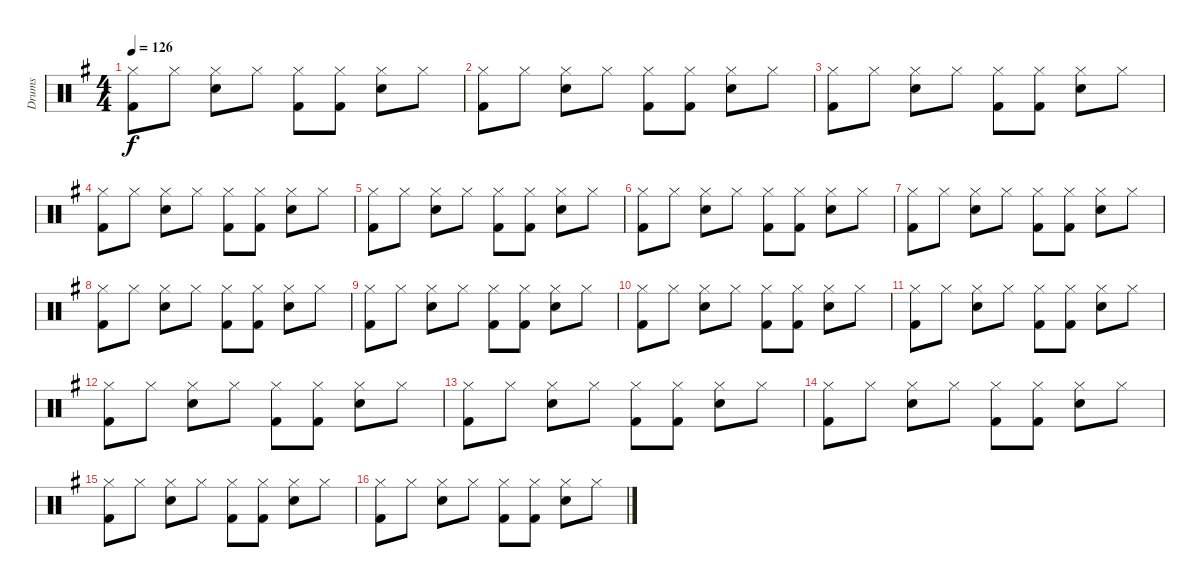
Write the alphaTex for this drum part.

\track ("Drums" "Drums") {instrument percussion}
\staff {score}
\articulation defaults
\ts (4 4)
\tempo 126
\clef neutral
\ks g
("Hi-Hat (closed)" "Kick (hit) 2").8{dy f} "Hi-Hat (closed)".8 ("Hi-Hat (closed)" "Snare (hit) 2").8 "Hi-Hat (closed)".8 ("Hi-Hat (closed)" "Kick (hit) 2").8 ("Hi-Hat (closed)" "Kick (hit) 2").8 ("Hi-Hat (closed)" "Snare (hit) 2").8 "Hi-Hat (closed)".8 |
("Hi-Hat (closed)" "Kick (hit) 2").8 "Hi-Hat (closed)".8 ("Hi-Hat (closed)" "Snare (hit) 2").8 "Hi-Hat (closed)".8 ("Hi-Hat (closed)" "Kick (hit) 2").8 ("Hi-Hat (closed)" "Kick (hit) 2").8 ("Hi-Hat (closed)" "Snare (hit) 2").8 "Hi-Hat (closed)".8 |
("Hi-Hat (closed)" "Kick (hit) 2").8 "Hi-Hat (closed)".8 ("Hi-Hat (closed)" "Snare (hit) 2").8 "Hi-Hat (closed)".8 ("Hi-Hat (closed)" "Kick (hit) 2").8 ("Hi-Hat (closed)" "Kick (hit) 2").8 ("Hi-Hat (closed)" "Snare (hit) 2").8 "Hi-Hat (closed)".8 |
("Hi-Hat (closed)" "Kick (hit) 2").8 "Hi-Hat (closed)".8 ("Hi-Hat (closed)" "Snare (hit) 2").8 "Hi-Hat (closed)".8 ("Hi-Hat (closed)" "Kick (hit) 2").8 ("Hi-Hat (closed)" "Kick (hit) 2").8 ("Hi-Hat (closed)" "Snare (hit) 2").8 "Hi-Hat (closed)".8 |
("Hi-Hat (closed)" "Kick (hit) 2").8 "Hi-Hat (closed)".8 ("Hi-Hat (closed)" "Snare (hit) 2").8 "Hi-Hat (closed)".8 ("Hi-Hat (closed)" "Kick (hit) 2").8 ("Hi-Hat (closed)" "Kick (hit) 2").8 ("Hi-Hat (closed)" "Snare (hit) 2").8 "Hi-Hat (closed)".8 |
("Hi-Hat (closed)" "Kick (hit) 2").8 "Hi-Hat (closed)".8 ("Hi-Hat (closed)" "Snare (hit) 2").8 "Hi-Hat (closed)".8 ("Hi-Hat (closed)" "Kick (hit) 2").8 ("Hi-Hat (closed)" "Kick (hit) 2").8 ("Hi-Hat (closed)" "Snare (hit) 2").8 "Hi-Hat (closed)".8 |
("Hi-Hat (closed)" "Kick (hit) 2").8 "Hi-Hat (closed)".8 ("Hi-Hat (closed)" "Snare (hit) 2").8 "Hi-Hat (closed)".8 ("Hi-Hat (closed)" "Kick (hit) 2").8 ("Hi-Hat (closed)" "Kick (hit) 2").8 ("Hi-Hat (closed)" "Snare (hit) 2").8 "Hi-Hat (closed)".8 |
("Hi-Hat (closed)" "Kick (hit) 2").8 "Hi-Hat (closed)".8 ("Hi-Hat (closed)" "Snare (hit) 2").8 "Hi-Hat (closed)".8 ("Hi-Hat (closed)" "Kick (hit) 2").8 ("Hi-Hat (closed)" "Kick (hit) 2").8 ("Hi-Hat (closed)" "Snare (hit) 2").8 "Hi-Hat (closed)".8 |
("Hi-Hat (closed)" "Kick (hit) 2").8 "Hi-Hat (closed)".8 ("Hi-Hat (closed)" "Snare (hit) 2").8 "Hi-Hat (closed)".8 ("Hi-Hat (closed)" "Kick (hit) 2").8 ("Hi-Hat (closed)" "Kick (hit) 2").8 ("Hi-Hat (closed)" "Snare (hit) 2").8 "Hi-Hat (closed)".8 |
("Hi-Hat (closed)" "Kick (hit) 2").8 "Hi-Hat (closed)".8 ("Hi-Hat (closed)" "Snare (hit) 2").8 "Hi-Hat (closed)".8 ("Hi-Hat (closed)" "Kick (hit) 2").8 ("Hi-Hat (closed)" "Kick (hit) 2").8 ("Hi-Hat (closed)" "Snare (hit) 2").8 "Hi-Hat (closed)".8 |
("Hi-Hat (closed)" "Kick (hit) 2").8 "Hi-Hat (closed)".8 ("Hi-Hat (closed)" "Snare (hit) 2").8 "Hi-Hat (closed)".8 ("Hi-Hat (closed)" "Kick (hit) 2").8 ("Hi-Hat (closed)" "Kick (hit) 2").8 ("Hi-Hat (closed)" "Snare (hit) 2").8 "Hi-Hat (closed)".8 |
("Hi-Hat (closed)" "Kick (hit) 2").8 "Hi-Hat (closed)".8 ("Hi-Hat (closed)" "Snare (hit) 2").8 "Hi-Hat (closed)".8 ("Hi-Hat (closed)" "Kick (hit) 2").8 ("Hi-Hat (closed)" "Kick (hit) 2").8 ("Hi-Hat (closed)" "Snare (hit) 2").8 "Hi-Hat (closed)".8 |
("Hi-Hat (closed)" "Kick (hit) 2").8 "Hi-Hat (closed)".8 ("Hi-Hat (closed)" "Snare (hit) 2").8 "Hi-Hat (closed)".8 ("Hi-Hat (closed)" "Kick (hit) 2").8 ("Hi-Hat (closed)" "Kick (hit) 2").8 ("Hi-Hat (closed)" "Snare (hit) 2").8 "Hi-Hat (closed)".8 |
("Hi-Hat (closed)" "Kick (hit) 2").8 "Hi-Hat (closed)".8 ("Hi-Hat (closed)" "Snare (hit) 2").8 "Hi-Hat (closed)".8 ("Hi-Hat (closed)" "Kick (hit) 2").8 ("Hi-Hat (closed)" "Kick (hit) 2").8 ("Hi-Hat (closed)" "Snare (hit) 2").8 "Hi-Hat (closed)".8 |
("Hi-Hat (closed)" "Kick (hit) 2").8 "Hi-Hat (closed)".8 ("Hi-Hat (closed)" "Snare (hit) 2").8 "Hi-Hat (closed)".8 ("Hi-Hat (closed)" "Kick (hit) 2").8 ("Hi-Hat (closed)" "Kick (hit) 2").8 ("Hi-Hat (closed)" "Snare (hit) 2").8 "Hi-Hat (closed)".8 |
("Hi-Hat (closed)" "Kick (hit) 2").8 "Hi-Hat (closed)".8 ("Hi-Hat (closed)" "Snare (hit) 2").8 "Hi-Hat (closed)".8 ("Hi-Hat (closed)" "Kick (hit) 2").8 ("Hi-Hat (closed)" "Kick (hit) 2").8 ("Hi-Hat (closed)" "Snare (hit) 2").8 "Hi-Hat (closed)".8
